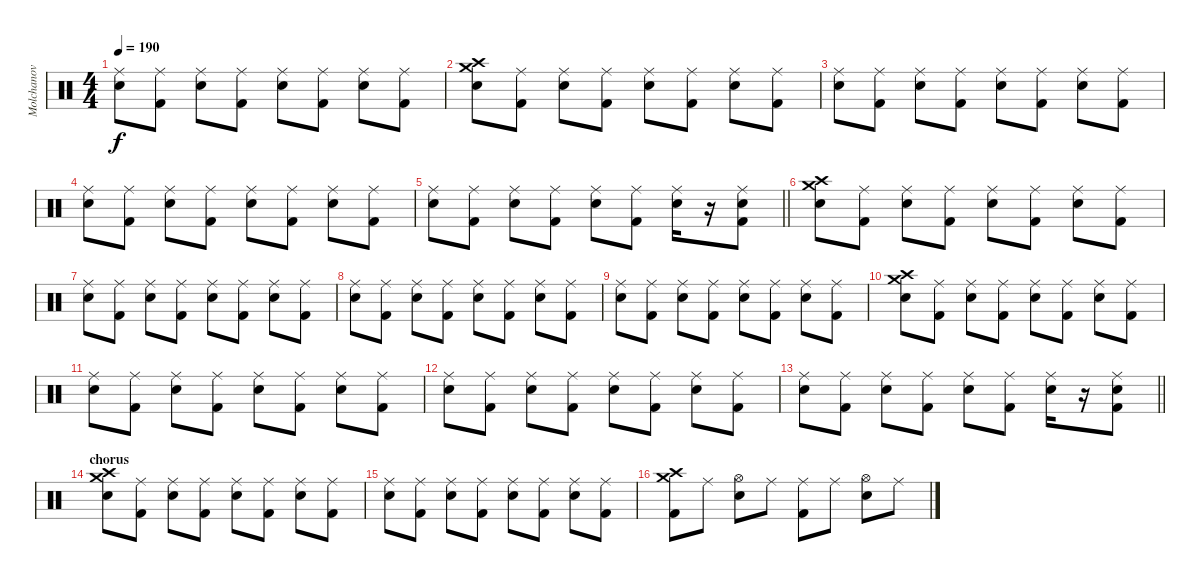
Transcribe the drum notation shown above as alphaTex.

\track ("Molchanov" "Molchanov") {instrument percussion}
\staff {score}
\articulation defaults
\ts (4 4)
\tempo 190
\clef neutral
\ks c
("Ride (middle)" "Snare (hit) 2").8{dy f} ("Ride (middle)" "Kick (hit) 2").8 ("Ride (middle)" "Snare (hit) 2").8 ("Ride (middle)" "Kick (hit) 2").8 ("Ride (middle)" "Snare (hit) 2").8 ("Ride (middle)" "Kick (hit) 2").8 ("Ride (middle)" "Snare (hit) 2").8 ("Ride (middle)" "Kick (hit) 2").8 |
("Crash high (hit)" "Snare (hit) 2" "Crash medium (hit)").8 ("Ride (middle)" "Kick (hit) 2").8 ("Ride (middle)" "Snare (hit) 2").8 ("Ride (middle)" "Kick (hit) 2").8 ("Ride (middle)" "Snare (hit) 2").8 ("Ride (middle)" "Kick (hit) 2").8 ("Ride (middle)" "Snare (hit) 2").8 ("Ride (middle)" "Kick (hit) 2").8 |
("Ride (middle)" "Snare (hit) 2").8 ("Ride (middle)" "Kick (hit) 2").8 ("Ride (middle)" "Snare (hit) 2").8 ("Ride (middle)" "Kick (hit) 2").8 ("Ride (middle)" "Snare (hit) 2").8 ("Ride (middle)" "Kick (hit) 2").8 ("Ride (middle)" "Snare (hit) 2").8 ("Ride (middle)" "Kick (hit) 2").8 |
("Ride (middle)" "Snare (hit) 2").8 ("Ride (middle)" "Kick (hit) 2").8 ("Ride (middle)" "Snare (hit) 2").8 ("Ride (middle)" "Kick (hit) 2").8 ("Ride (middle)" "Snare (hit) 2").8 ("Ride (middle)" "Kick (hit) 2").8 ("Ride (middle)" "Snare (hit) 2").8 ("Ride (middle)" "Kick (hit) 2").8 |
\barLineRight lightlight
("Ride (middle)" "Snare (hit) 2").8 ("Ride (middle)" "Kick (hit) 2").8 ("Ride (middle)" "Snare (hit) 2").8 ("Ride (middle)" "Kick (hit) 2").8 ("Ride (middle)" "Snare (hit) 2").8 ("Ride (middle)" "Kick (hit) 2").8 ("Ride (middle)" "Snare (hit) 2").16 r.16 ("Ride (middle)" "Snare (hit) 2" "Kick (hit) 2").8 |
("Crash high (hit)" "Snare (hit) 2" "Crash medium (hit)").8 ("Ride (middle)" "Kick (hit) 2").8 ("Ride (middle)" "Snare (hit) 2").8 ("Ride (middle)" "Kick (hit) 2").8 ("Ride (middle)" "Snare (hit) 2").8 ("Ride (middle)" "Kick (hit) 2").8 ("Ride (middle)" "Snare (hit) 2").8 ("Ride (middle)" "Kick (hit) 2").8 |
("Ride (middle)" "Snare (hit) 2").8 ("Ride (middle)" "Kick (hit) 2").8 ("Ride (middle)" "Snare (hit) 2").8 ("Ride (middle)" "Kick (hit) 2").8 ("Ride (middle)" "Snare (hit) 2").8 ("Ride (middle)" "Kick (hit) 2").8 ("Ride (middle)" "Snare (hit) 2").8 ("Ride (middle)" "Kick (hit) 2").8 |
("Ride (middle)" "Snare (hit) 2").8 ("Ride (middle)" "Kick (hit) 2").8 ("Ride (middle)" "Snare (hit) 2").8 ("Ride (middle)" "Kick (hit) 2").8 ("Ride (middle)" "Snare (hit) 2").8 ("Ride (middle)" "Kick (hit) 2").8 ("Ride (middle)" "Snare (hit) 2").8 ("Ride (middle)" "Kick (hit) 2").8 |
("Ride (middle)" "Snare (hit) 2").8 ("Ride (middle)" "Kick (hit) 2").8 ("Ride (middle)" "Snare (hit) 2").8 ("Ride (middle)" "Kick (hit) 2").8 ("Ride (middle)" "Snare (hit) 2").8 ("Ride (middle)" "Kick (hit) 2").8 ("Ride (middle)" "Snare (hit) 2").8 ("Ride (middle)" "Kick (hit) 2").8 |
("Crash high (hit)" "Snare (hit) 2" "Crash medium (hit)").8 ("Ride (middle)" "Kick (hit) 2").8 ("Ride (middle)" "Snare (hit) 2").8 ("Ride (middle)" "Kick (hit) 2").8 ("Ride (middle)" "Snare (hit) 2").8 ("Ride (middle)" "Kick (hit) 2").8 ("Ride (middle)" "Snare (hit) 2").8 ("Ride (middle)" "Kick (hit) 2").8 |
("Ride (middle)" "Snare (hit) 2").8 ("Ride (middle)" "Kick (hit) 2").8 ("Ride (middle)" "Snare (hit) 2").8 ("Ride (middle)" "Kick (hit) 2").8 ("Ride (middle)" "Snare (hit) 2").8 ("Ride (middle)" "Kick (hit) 2").8 ("Ride (middle)" "Snare (hit) 2").8 ("Ride (middle)" "Kick (hit) 2").8 |
("Ride (middle)" "Snare (hit) 2").8 ("Ride (middle)" "Kick (hit) 2").8 ("Ride (middle)" "Snare (hit) 2").8 ("Ride (middle)" "Kick (hit) 2").8 ("Ride (middle)" "Snare (hit) 2").8 ("Ride (middle)" "Kick (hit) 2").8 ("Ride (middle)" "Snare (hit) 2").8 ("Ride (middle)" "Kick (hit) 2").8 |
\barLineRight lightlight
("Ride (middle)" "Snare (hit) 2").8 ("Ride (middle)" "Kick (hit) 2").8 ("Ride (middle)" "Snare (hit) 2").8 ("Ride (middle)" "Kick (hit) 2").8 ("Ride (middle)" "Snare (hit) 2").8 ("Ride (middle)" "Kick (hit) 2").8 ("Ride (middle)" "Snare (hit) 2").16 r.16 ("Ride (middle)" "Snare (hit) 2" "Kick (hit) 2").8 |
\section ("" "chorus")
("Crash high (hit)" "Snare (hit) 2" "Crash medium (hit)").8 ("Ride (middle)" "Kick (hit) 2").8 ("Ride (middle)" "Snare (hit) 2").8 ("Ride (middle)" "Kick (hit) 2").8 ("Ride (middle)" "Snare (hit) 2").8 ("Ride (middle)" "Kick (hit) 2").8 ("Ride (middle)" "Snare (hit) 2").8 ("Ride (middle)" "Kick (hit) 2").8 |
("Ride (middle)" "Snare (hit) 2").8 ("Ride (middle)" "Kick (hit) 2").8 ("Ride (middle)" "Snare (hit) 2").8 ("Ride (middle)" "Kick (hit) 2").8 ("Ride (middle)" "Snare (hit) 2").8 ("Ride (middle)" "Kick (hit) 2").8 ("Ride (middle)" "Snare (hit) 2").8 ("Ride (middle)" "Kick (hit) 2").8 |
("Crash high (hit)" "Crash medium (hit)" "Kick (hit) 2").8 "Ride (middle)".8 ("Hi-Hat (open)" "Snare (hit) 2").8 "Ride (middle)".8 ("Ride (middle)" "Kick (hit) 2").8 "Ride (middle)".8 ("Hi-Hat (open)" "Snare (hit) 2").8 "Ride (middle)".8
